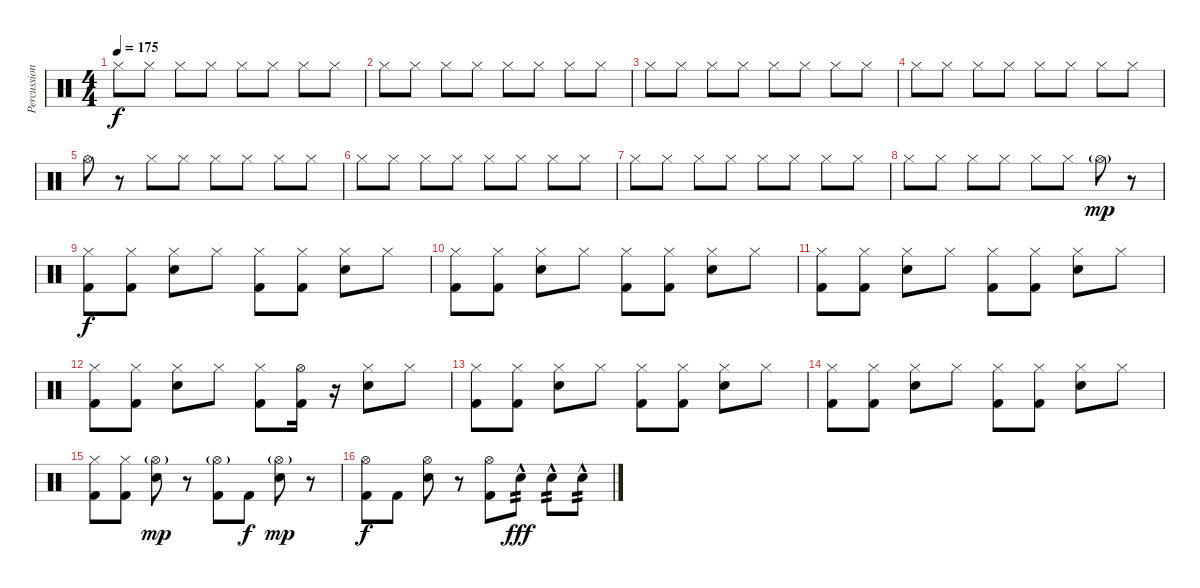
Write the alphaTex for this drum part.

\track ("Percussion" "Percussion") {instrument percussion bank 177}
\staff {score}
\articulation defaults
\ts (4 4)
\tempo 175
\clef neutral
\ks c "Hi-Hat (closed)".8{dy f} "Hi-Hat (closed)".8 "Hi-Hat (closed)".8 "Hi-Hat (closed)".8 "Hi-Hat (closed)".8 "Hi-Hat (closed)".8 "Hi-Hat (closed)".8 "Hi-Hat (closed)".8
|
"Hi-Hat (closed)".8 "Hi-Hat (closed)".8 "Hi-Hat (closed)".8 "Hi-Hat (closed)".8 "Hi-Hat (closed)".8 "Hi-Hat (closed)".8 "Hi-Hat (closed)".8 "Hi-Hat (closed)".8 |
"Hi-Hat (closed)".8 "Hi-Hat (closed)".8 "Hi-Hat (closed)".8 "Hi-Hat (closed)".8 "Hi-Hat (closed)".8 "Hi-Hat (closed)".8 "Hi-Hat (closed)".8 "Hi-Hat (closed)".8 |
"Hi-Hat (closed)".8 "Hi-Hat (closed)".8 "Hi-Hat (closed)".8 "Hi-Hat (closed)".8 "Hi-Hat (closed)".8 "Hi-Hat (closed)".8 "Hi-Hat (closed)".8 "Hi-Hat (closed)".8 |
"Hi-Hat (open)".8 r.8 "Hi-Hat (closed)".8 "Hi-Hat (closed)".8 "Hi-Hat (closed)".8 "Hi-Hat (closed)".8 "Hi-Hat (closed)".8 "Hi-Hat (closed)".8 |
"Hi-Hat (closed)".8 "Hi-Hat (closed)".8 "Hi-Hat (closed)".8 "Hi-Hat (closed)".8 "Hi-Hat (closed)".8 "Hi-Hat (closed)".8 "Hi-Hat (closed)".8 "Hi-Hat (closed)".8 |
"Hi-Hat (closed)".8 "Hi-Hat (closed)".8 "Hi-Hat (closed)".8 "Hi-Hat (closed)".8 "Hi-Hat (closed)".8 "Hi-Hat (closed)".8 "Hi-Hat (closed)".8 "Hi-Hat (closed)".8 |
"Hi-Hat (closed)".8 "Hi-Hat (closed)".8 "Hi-Hat (closed)".8 "Hi-Hat (closed)".8 "Hi-Hat (closed)".8 "Hi-Hat (closed)".8 "Hi-Hat (open)"{g}.8{dy mp} r.8 |
("Hi-Hat (closed)" "Kick (hit) 2").8{dy f} ("Hi-Hat (closed)" "Kick (hit) 2").8 ("Hi-Hat (closed)" "Electric Snare (hit)").8 "Hi-Hat (closed)".8 ("Hi-Hat (closed)" "Kick (hit) 2").8 ("Hi-Hat (closed)" "Kick (hit) 2").8 ("Hi-Hat (closed)" "Electric Snare (hit)").8 "Hi-Hat (closed)".8 |
("Hi-Hat (closed)" "Kick (hit) 2").8 ("Hi-Hat (closed)" "Kick (hit) 2").8 ("Hi-Hat (closed)" "Electric Snare (hit)").8 "Hi-Hat (closed)".8 ("Hi-Hat (closed)" "Kick (hit) 2").8 ("Hi-Hat (closed)" "Kick (hit) 2").8 ("Hi-Hat (closed)" "Electric Snare (hit)").8 "Hi-Hat (closed)".8 |
("Hi-Hat (closed)" "Kick (hit) 2").8 ("Hi-Hat (closed)" "Kick (hit) 2").8 ("Hi-Hat (closed)" "Electric Snare (hit)").8 "Hi-Hat (closed)".8 ("Hi-Hat (closed)" "Kick (hit) 2").8 ("Hi-Hat (closed)" "Kick (hit) 2").8 ("Hi-Hat (closed)" "Electric Snare (hit)").8 "Hi-Hat (closed)".8 |
("Hi-Hat (closed)" "Kick (hit) 2").8 ("Hi-Hat (closed)" "Kick (hit) 2").8 ("Hi-Hat (closed)" "Electric Snare (hit)").8 "Hi-Hat (closed)".8 ("Hi-Hat (closed)" "Kick (hit) 2").8 ("Hi-Hat (open)" "Kick (hit) 2").16 r.16 ("Hi-Hat (closed)" "Electric Snare (hit)").8 "Hi-Hat (closed)".8 |
("Hi-Hat (closed)" "Kick (hit) 2").8 ("Hi-Hat (closed)" "Kick (hit) 2").8 ("Hi-Hat (closed)" "Electric Snare (hit)").8 "Hi-Hat (closed)".8 ("Hi-Hat (closed)" "Kick (hit) 2").8 ("Hi-Hat (closed)" "Kick (hit) 2").8 ("Hi-Hat (closed)" "Electric Snare (hit)").8 "Hi-Hat (closed)".8 |
("Hi-Hat (closed)" "Kick (hit) 2").8 ("Hi-Hat (closed)" "Kick (hit) 2").8 ("Hi-Hat (closed)" "Electric Snare (hit)").8 "Hi-Hat (closed)".8 ("Hi-Hat (closed)" "Kick (hit) 2").8 ("Hi-Hat (closed)" "Kick (hit) 2").8 ("Hi-Hat (closed)" "Electric Snare (hit)").8 "Hi-Hat (closed)".8 |
("Hi-Hat (closed)" "Kick (hit) 2").8 ("Hi-Hat (closed)" "Kick (hit) 2").8 ("Hi-Hat (open)"{g} "Electric Snare (hit)").8{dy mp} r.8 ("Hi-Hat (open)"{g} "Kick (hit) 2").8 "Kick (hit) 2".8{dy f} ("Hi-Hat (open)"{g} "Electric Snare (hit)").8{dy mp} r.8 |
("Hi-Hat (open)" "Kick (hit) 2").8{dy f} "Kick (hit) 2".8 ("Hi-Hat (open)" "Electric Snare (hit)").8 r.8 ("Hi-Hat (open)" "Kick (hit) 2").8 "Electric Snare (hit)"{hac}.8{tp 2 dy fff} "Electric Snare (hit)"{hac}.8{tp 2} "Electric Snare (hit)"{hac}.8{tp 2}
